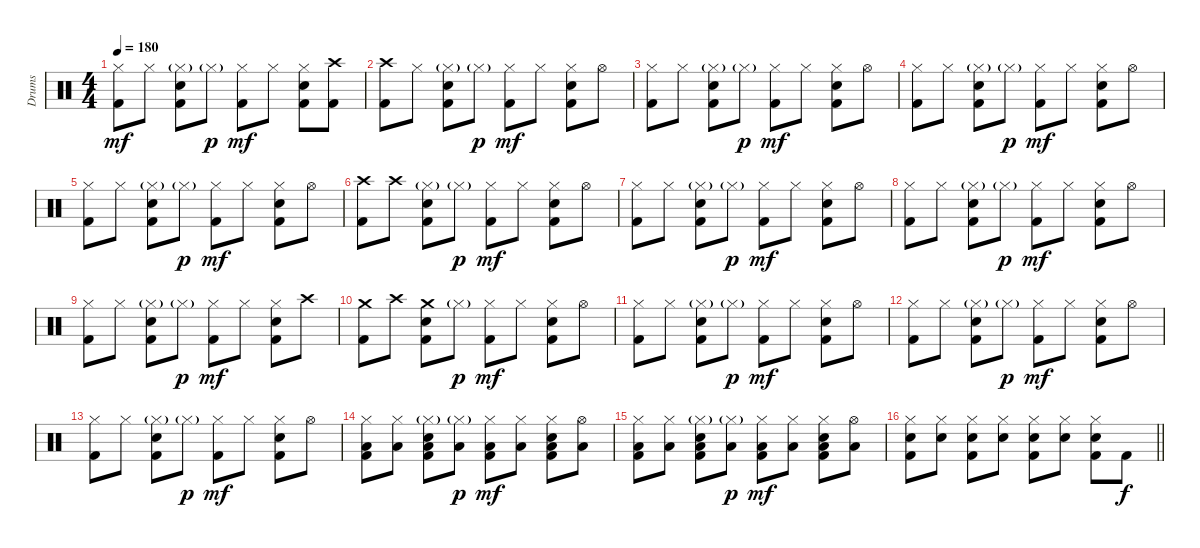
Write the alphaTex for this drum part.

\track ("Drums" "Drums") {instrument percussion}
\staff {score}
\articulation defaults
\ts (4 4)
\tempo 180
\clef neutral
\ks c
("Hi-Hat (closed)" "Kick (hit) 2").8{dy mf} "Hi-Hat (closed)".8 ("Hi-Hat (closed)"{g} "Electric Snare (hit)" "Kick (hit) 2").8 "Hi-Hat (closed)"{g}.8{dy p} ("Hi-Hat (closed)" "Kick (hit) 2").8{dy mf} "Hi-Hat (closed)".8 ("Hi-Hat (closed)" "Electric Snare (hit)" "Kick (hit) 2").8 ("Crash high (hit)" "Kick (hit) 2").8 |
("Crash high (hit)" "Kick (hit) 2").8 "Hi-Hat (closed)".8 ("Hi-Hat (closed)"{g} "Electric Snare (hit)" "Kick (hit) 2").8 "Hi-Hat (closed)"{g}.8{dy p} ("Hi-Hat (closed)" "Kick (hit) 2").8{dy mf} "Hi-Hat (closed)".8 ("Hi-Hat (closed)" "Electric Snare (hit)" "Kick (hit) 2").8 "Hi-Hat (open)".8 |
("Hi-Hat (closed)" "Kick (hit) 2").8 "Hi-Hat (closed)".8 ("Hi-Hat (closed)"{g} "Electric Snare (hit)" "Kick (hit) 2").8 "Hi-Hat (closed)"{g}.8{dy p} ("Hi-Hat (closed)" "Kick (hit) 2").8{dy mf} "Hi-Hat (closed)".8 ("Hi-Hat (closed)" "Electric Snare (hit)" "Kick (hit) 2").8 "Hi-Hat (open)".8 |
("Hi-Hat (closed)" "Kick (hit) 2").8 "Hi-Hat (closed)".8 ("Hi-Hat (closed)"{g} "Electric Snare (hit)" "Kick (hit) 2").8 "Hi-Hat (closed)"{g}.8{dy p} ("Hi-Hat (closed)" "Kick (hit) 2").8{dy mf} "Hi-Hat (closed)".8 ("Hi-Hat (closed)" "Electric Snare (hit)" "Kick (hit) 2").8 "Hi-Hat (open)".8 |
("Hi-Hat (closed)" "Kick (hit) 2").8 "Hi-Hat (closed)".8 ("Hi-Hat (closed)"{g} "Electric Snare (hit)" "Kick (hit) 2").8 "Hi-Hat (closed)"{g}.8{dy p} ("Hi-Hat (closed)" "Kick (hit) 2").8{dy mf} "Hi-Hat (closed)".8 ("Hi-Hat (closed)" "Electric Snare (hit)" "Kick (hit) 2").8 "Hi-Hat (open)".8 |
("Crash high (hit)" "Kick (hit) 2").8 "Crash high (hit)".8 ("Hi-Hat (closed)"{g} "Electric Snare (hit)" "Kick (hit) 2").8 "Hi-Hat (closed)"{g}.8{dy p} ("Hi-Hat (closed)" "Kick (hit) 2").8{dy mf} "Hi-Hat (closed)".8 ("Hi-Hat (closed)" "Electric Snare (hit)" "Kick (hit) 2").8 "Hi-Hat (open)".8 |
("Hi-Hat (closed)" "Kick (hit) 2").8 "Hi-Hat (closed)".8 ("Hi-Hat (closed)"{g} "Electric Snare (hit)" "Kick (hit) 2").8 "Hi-Hat (closed)"{g}.8{dy p} ("Hi-Hat (closed)" "Kick (hit) 2").8{dy mf} "Hi-Hat (closed)".8 ("Hi-Hat (closed)" "Electric Snare (hit)" "Kick (hit) 2").8 "Hi-Hat (open)".8 |
("Hi-Hat (closed)" "Kick (hit) 2").8 "Hi-Hat (closed)".8 ("Hi-Hat (closed)"{g} "Electric Snare (hit)" "Kick (hit) 2").8 "Hi-Hat (closed)"{g}.8{dy p} ("Hi-Hat (closed)" "Kick (hit) 2").8{dy mf} "Hi-Hat (closed)".8 ("Hi-Hat (closed)" "Electric Snare (hit)" "Kick (hit) 2").8 "Hi-Hat (open)".8 |
("Hi-Hat (closed)" "Kick (hit) 2").8 "Hi-Hat (closed)".8 ("Hi-Hat (closed)"{g} "Electric Snare (hit)" "Kick (hit) 2").8 "Hi-Hat (closed)"{g}.8{dy p} ("Hi-Hat (closed)" "Kick (hit) 2").8{dy mf} "Hi-Hat (closed)".8 ("Hi-Hat (closed)" "Electric Snare (hit)" "Kick (hit) 2").8 "Crash high (hit)".8 |
("Crash medium (hit)" "Kick (hit) 2").8 "Crash high (hit)".8 ("Crash medium (hit)" "Electric Snare (hit)" "Kick (hit) 2").8 "Hi-Hat (closed)"{g}.8{dy p} ("Hi-Hat (closed)" "Kick (hit) 2").8{dy mf} "Hi-Hat (closed)".8 ("Hi-Hat (closed)" "Electric Snare (hit)" "Kick (hit) 2").8 "Hi-Hat (open)".8 |
("Hi-Hat (closed)" "Kick (hit) 2").8 "Hi-Hat (closed)".8 ("Hi-Hat (closed)"{g} "Electric Snare (hit)" "Kick (hit) 2").8 "Hi-Hat (closed)"{g}.8{dy p} ("Hi-Hat (closed)" "Kick (hit) 2").8{dy mf} "Hi-Hat (closed)".8 ("Hi-Hat (closed)" "Electric Snare (hit)" "Kick (hit) 2").8 "Hi-Hat (open)".8 |
("Hi-Hat (closed)" "Kick (hit) 2").8 "Hi-Hat (closed)".8 ("Hi-Hat (closed)"{g} "Electric Snare (hit)" "Kick (hit) 2").8 "Hi-Hat (closed)"{g}.8{dy p} ("Hi-Hat (closed)" "Kick (hit) 2").8{dy mf} "Hi-Hat (closed)".8 ("Hi-Hat (closed)" "Electric Snare (hit)" "Kick (hit) 2").8 "Hi-Hat (open)".8 |
("Hi-Hat (closed)" "Kick (hit) 2").8 "Hi-Hat (closed)".8 ("Hi-Hat (closed)"{g} "Electric Snare (hit)" "Kick (hit) 2").8 "Hi-Hat (closed)"{g}.8{dy p} ("Hi-Hat (closed)" "Kick (hit) 2").8{dy mf} "Hi-Hat (closed)".8 ("Hi-Hat (closed)" "Electric Snare (hit)" "Kick (hit) 2").8 "Hi-Hat (open)".8 |
("Hi-Hat (closed)" "Low Floor Tom (hit)" "Kick (hit) 2").8 ("Hi-Hat (closed)" "Low Floor Tom (hit)").8 ("Hi-Hat (closed)"{g} "Electric Snare (hit)" "Low Floor Tom (hit)" "Kick (hit) 2").8 ("Hi-Hat (closed)"{g} "Low Floor Tom (hit)").8{dy p} ("Hi-Hat (closed)" "Low Floor Tom (hit)" "Kick (hit) 2").8{dy mf} ("Hi-Hat (closed)" "Low Floor Tom (hit)").8 ("Hi-Hat (closed)" "Electric Snare (hit)" "Low Floor Tom (hit)" "Kick (hit) 2").8 ("Hi-Hat (open)" "Low Floor Tom (hit)").8 |
("Hi-Hat (closed)" "Low Floor Tom (hit)" "Kick (hit) 2").8 ("Hi-Hat (closed)" "Low Floor Tom (hit)").8 ("Hi-Hat (closed)"{g} "Electric Snare (hit)" "Low Floor Tom (hit)" "Kick (hit) 2").8 ("Hi-Hat (closed)"{g} "Low Floor Tom (hit)").8{dy p} ("Hi-Hat (closed)" "Low Floor Tom (hit)" "Kick (hit) 2").8{dy mf} ("Hi-Hat (closed)" "Low Floor Tom (hit)").8 ("Hi-Hat (closed)" "Electric Snare (hit)" "Low Floor Tom (hit)" "Kick (hit) 2").8 ("Hi-Hat (open)" "Low Floor Tom (hit)").8 |
\barLineRight lightlight
("Hi-Hat (closed)" "Electric Snare (hit)" "Kick (hit) 2").8 ("Hi-Hat (closed)" "Electric Snare (hit)").8 ("Hi-Hat (closed)" "Electric Snare (hit)" "Kick (hit) 2").8 ("Hi-Hat (closed)" "Electric Snare (hit)").8 ("Hi-Hat (closed)" "Electric Snare (hit)" "Kick (hit) 2").8 ("Hi-Hat (closed)" "Electric Snare (hit)").8 ("Hi-Hat (closed)" "Electric Snare (hit)" "Kick (hit) 2").8 "Kick (hit) 2".8{dy f}
